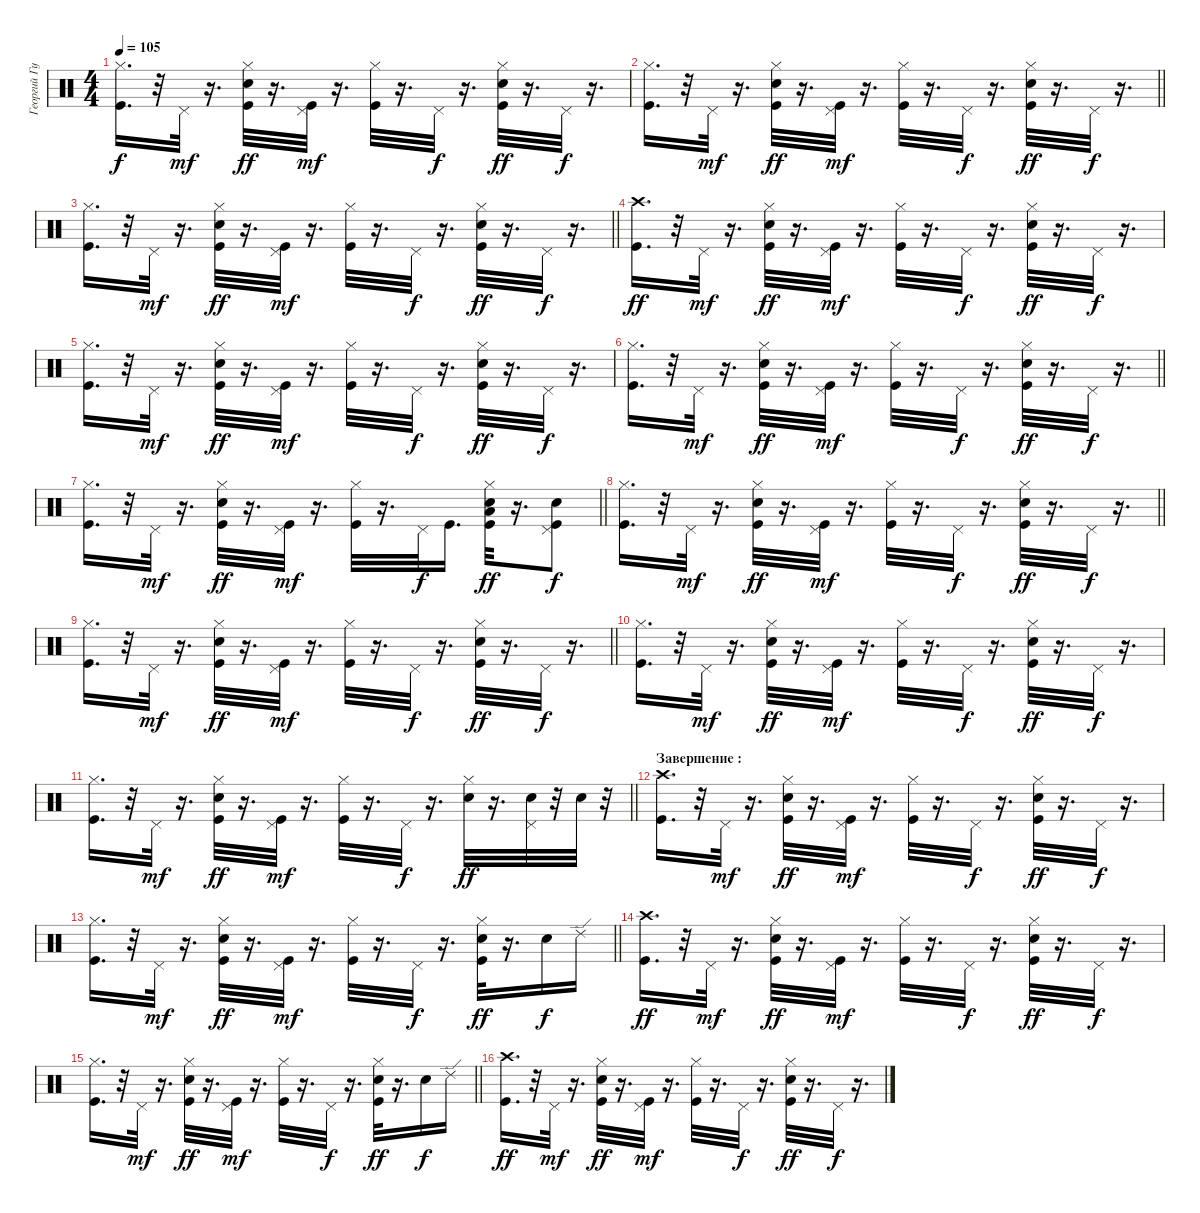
\track ("Георгий Гурьянов" "Георгий Гу") {instrument percussion}
\staff {score}
\articulation defaults
\ts (4 4)
\tempo 105
\clef neutral
\ks c
("Hi-Hat (closed)" "Kick (hit)").16{d dy f} r.32 "Pedal Hi-Hat (hit)".32{dy mf} r.16{d} ("Hi-Hat (closed)" "Snare (hit) 2" "Kick (hit)").32{dy ff} r.16{d} ("Pedal Hi-Hat (hit)" "Kick (hit)").32{dy mf} r.16{d} ("Hi-Hat (closed)" "Kick (hit)").32 r.16{d} "Pedal Hi-Hat (hit)".32{dy f} r.16{d} ("Hi-Hat (closed)" "Snare (hit) 2" "Kick (hit)").32{dy ff} r.16{d} "Pedal Hi-Hat (hit)".32{dy f} r.16{d} |
\barLineRight lightlight
("Hi-Hat (closed)" "Kick (hit)").16{d} r.32 "Pedal Hi-Hat (hit)".32{dy mf} r.16{d} ("Hi-Hat (closed)" "Snare (hit) 2" "Kick (hit)").32{dy ff} r.16{d} ("Pedal Hi-Hat (hit)" "Kick (hit)").32{dy mf} r.16{d} ("Hi-Hat (closed)" "Kick (hit)").32 r.16{d} "Pedal Hi-Hat (hit)".32{dy f} r.16{d} ("Hi-Hat (closed)" "Snare (hit) 2" "Kick (hit)").32{dy ff} r.16{d} "Pedal Hi-Hat (hit)".32{dy f} r.16{d} |
\barLineRight lightlight
("Hi-Hat (closed)" "Kick (hit)").16{d} r.32 "Pedal Hi-Hat (hit)".32{dy mf} r.16{d} ("Hi-Hat (closed)" "Snare (hit) 2" "Kick (hit)").32{dy ff} r.16{d} ("Pedal Hi-Hat (hit)" "Kick (hit)").32{dy mf} r.16{d} ("Hi-Hat (closed)" "Kick (hit)").32 r.16{d} "Pedal Hi-Hat (hit)".32{dy f} r.16{d} ("Hi-Hat (closed)" "Snare (hit) 2" "Kick (hit)").32{dy ff} r.16{d} "Pedal Hi-Hat (hit)".32{dy f} r.16{d} |
("Crash high (hit)" "Kick (hit)").16{d dy ff} r.32 "Pedal Hi-Hat (hit)".32{dy mf} r.16{d} ("Hi-Hat (closed)" "Snare (hit) 2" "Kick (hit)").32{dy ff} r.16{d} ("Pedal Hi-Hat (hit)" "Kick (hit)").32{dy mf} r.16{d} ("Hi-Hat (closed)" "Kick (hit)").32 r.16{d} "Pedal Hi-Hat (hit)".32{dy f} r.16{d} ("Hi-Hat (closed)" "Snare (hit) 2" "Kick (hit)").32{dy ff} r.16{d} "Pedal Hi-Hat (hit)".32{dy f} r.16{d} |
("Hi-Hat (closed)" "Kick (hit)").16{d} r.32 "Pedal Hi-Hat (hit)".32{dy mf} r.16{d} ("Hi-Hat (closed)" "Snare (hit) 2" "Kick (hit)").32{dy ff} r.16{d} ("Pedal Hi-Hat (hit)" "Kick (hit)").32{dy mf} r.16{d} ("Hi-Hat (closed)" "Kick (hit)").32 r.16{d} "Pedal Hi-Hat (hit)".32{dy f} r.16{d} ("Hi-Hat (closed)" "Snare (hit) 2" "Kick (hit)").32{dy ff} r.16{d} "Pedal Hi-Hat (hit)".32{dy f} r.16{d} |
\barLineRight lightlight
("Hi-Hat (closed)" "Kick (hit)").16{d} r.32 "Pedal Hi-Hat (hit)".32{dy mf} r.16{d} ("Hi-Hat (closed)" "Snare (hit) 2" "Kick (hit)").32{dy ff} r.16{d} ("Pedal Hi-Hat (hit)" "Kick (hit)").32{dy mf} r.16{d} ("Hi-Hat (closed)" "Kick (hit)").32 r.16{d} "Pedal Hi-Hat (hit)".32{dy f} r.16{d} ("Hi-Hat (closed)" "Snare (hit) 2" "Kick (hit)").32{dy ff} r.16{d} "Pedal Hi-Hat (hit)".32{dy f} r.16{d} |
\barLineRight lightlight
("Hi-Hat (closed)" "Kick (hit)").16{d} r.32 "Pedal Hi-Hat (hit)".32{dy mf} r.16{d} ("Hi-Hat (closed)" "Snare (hit) 2" "Kick (hit)").32{dy ff} r.16{d} ("Pedal Hi-Hat (hit)" "Kick (hit)").32{dy mf} r.16{d} ("Hi-Hat (closed)" "Kick (hit)").32 r.16{d} "Pedal Hi-Hat (hit)".32{dy f} "Kick (hit)".16{d} ("Hi-Hat (closed)" "Snare (hit) 2" "Low Tom (hit)" "Kick (hit)").32{dy ff} r.16{d} ("Pedal Hi-Hat (hit)" "Snare (hit) 2" "Kick (hit)").8{dy f} |
\barLineRight lightlight
("Hi-Hat (closed)" "Kick (hit)").16{d} r.32 "Pedal Hi-Hat (hit)".32{dy mf} r.16{d} ("Hi-Hat (closed)" "Snare (hit) 2" "Kick (hit)").32{dy ff} r.16{d} ("Pedal Hi-Hat (hit)" "Kick (hit)").32{dy mf} r.16{d} ("Hi-Hat (closed)" "Kick (hit)").32 r.16{d} "Pedal Hi-Hat (hit)".32{dy f} r.16{d} ("Hi-Hat (closed)" "Snare (hit) 2" "Kick (hit)").32{dy ff} r.16{d} "Pedal Hi-Hat (hit)".32{dy f} r.16{d} |
\barLineRight lightlight
("Hi-Hat (closed)" "Kick (hit)").16{d} r.32 "Pedal Hi-Hat (hit)".32{dy mf} r.16{d} ("Hi-Hat (closed)" "Snare (hit) 2" "Kick (hit)").32{dy ff} r.16{d} ("Pedal Hi-Hat (hit)" "Kick (hit)").32{dy mf} r.16{d} ("Hi-Hat (closed)" "Kick (hit)").32 r.16{d} "Pedal Hi-Hat (hit)".32{dy f} r.16{d} ("Hi-Hat (closed)" "Snare (hit) 2" "Kick (hit)").32{dy ff} r.16{d} "Pedal Hi-Hat (hit)".32{dy f} r.16{d} |
("Hi-Hat (closed)" "Kick (hit)").16{d} r.32 "Pedal Hi-Hat (hit)".32{dy mf} r.16{d} ("Hi-Hat (closed)" "Snare (hit) 2" "Kick (hit)").32{dy ff} r.16{d} ("Pedal Hi-Hat (hit)" "Kick (hit)").32{dy mf} r.16{d} ("Hi-Hat (closed)" "Kick (hit)").32 r.16{d} "Pedal Hi-Hat (hit)".32{dy f} r.16{d} ("Hi-Hat (closed)" "Snare (hit) 2" "Kick (hit)").32{dy ff} r.16{d} "Pedal Hi-Hat (hit)".32{dy f} r.16{d} |
\barLineRight lightlight
("Hi-Hat (closed)" "Kick (hit)").16{d} r.32 "Pedal Hi-Hat (hit)".32{dy mf} r.16{d} ("Hi-Hat (closed)" "Snare (hit) 2" "Kick (hit)").32{dy ff} r.16{d} ("Pedal Hi-Hat (hit)" "Kick (hit)").32{dy mf} r.16{d} ("Hi-Hat (closed)" "Kick (hit)").32 r.16{d} "Pedal Hi-Hat (hit)".32{dy f} r.16{d} ("Hi-Hat (closed)" "Snare (hit) 2").32{dy ff} r.16{d} ("Pedal Hi-Hat (hit)" "Snare (hit) 2").32 r.32 "Snare (hit) 2".32 r.32 |
\section ("" "Завершение :")
("Crash high (hit)" "Kick (hit)").16{d} r.32 "Pedal Hi-Hat (hit)".32{dy mf} r.16{d} ("Hi-Hat (closed)" "Snare (hit) 2" "Kick (hit)").32{dy ff} r.16{d} ("Pedal Hi-Hat (hit)" "Kick (hit)").32{dy mf} r.16{d} ("Hi-Hat (closed)" "Kick (hit)").32 r.16{d} "Pedal Hi-Hat (hit)".32{dy f} r.16{d} ("Hi-Hat (closed)" "Snare (hit) 2" "Kick (hit)").32{dy ff} r.16{d} "Pedal Hi-Hat (hit)".32{dy f} r.16{d} |
\barLineRight lightlight
("Hi-Hat (closed)" "Kick (hit)").16{d} r.32 "Pedal Hi-Hat (hit)".32{dy mf} r.16{d} ("Hi-Hat (closed)" "Snare (hit) 2" "Kick (hit)").32{dy ff} r.16{d} ("Pedal Hi-Hat (hit)" "Kick (hit)").32{dy mf} r.16{d} ("Hi-Hat (closed)" "Kick (hit)").32 r.16{d} "Pedal Hi-Hat (hit)".32{dy f} r.16{d} ("Hi-Hat (closed)" "Snare (hit) 2" "Kick (hit)").32{dy ff} r.16{d} "Snare (hit) 2".16{dy f} "Ride (edge) 2".16 |
("Crash high (hit)" "Kick (hit)").16{d dy ff} r.32 "Pedal Hi-Hat (hit)".32{dy mf} r.16{d} ("Hi-Hat (closed)" "Snare (hit) 2" "Kick (hit)").32{dy ff} r.16{d} ("Pedal Hi-Hat (hit)" "Kick (hit)").32{dy mf} r.16{d} ("Hi-Hat (closed)" "Kick (hit)").32 r.16{d} "Pedal Hi-Hat (hit)".32{dy f} r.16{d} ("Hi-Hat (closed)" "Snare (hit) 2" "Kick (hit)").32{dy ff} r.16{d} "Pedal Hi-Hat (hit)".32{dy f} r.16{d} |
\barLineRight lightlight
("Hi-Hat (closed)" "Kick (hit)").16{d} r.32 "Pedal Hi-Hat (hit)".32{dy mf} r.16{d} ("Hi-Hat (closed)" "Snare (hit) 2" "Kick (hit)").32{dy ff} r.16{d} ("Pedal Hi-Hat (hit)" "Kick (hit)").32{dy mf} r.16{d} ("Hi-Hat (closed)" "Kick (hit)").32 r.16{d} "Pedal Hi-Hat (hit)".32{dy f} r.16{d} ("Hi-Hat (closed)" "Snare (hit) 2" "Kick (hit)").32{dy ff} r.16{d} "Snare (hit) 2".16{dy f} "Ride (edge) 2".16 |
("Crash high (hit)" "Kick (hit)").16{d dy ff} r.32 "Pedal Hi-Hat (hit)".32{dy mf} r.16{d} ("Hi-Hat (closed)" "Snare (hit) 2" "Kick (hit)").32{dy ff} r.16{d} ("Pedal Hi-Hat (hit)" "Kick (hit)").32{dy mf} r.16{d} ("Hi-Hat (closed)" "Kick (hit)").32 r.16{d} "Pedal Hi-Hat (hit)".32{dy f} r.16{d} ("Hi-Hat (closed)" "Snare (hit) 2" "Kick (hit)").32{dy ff} r.16{d} "Pedal Hi-Hat (hit)".32{dy f} r.16{d}
